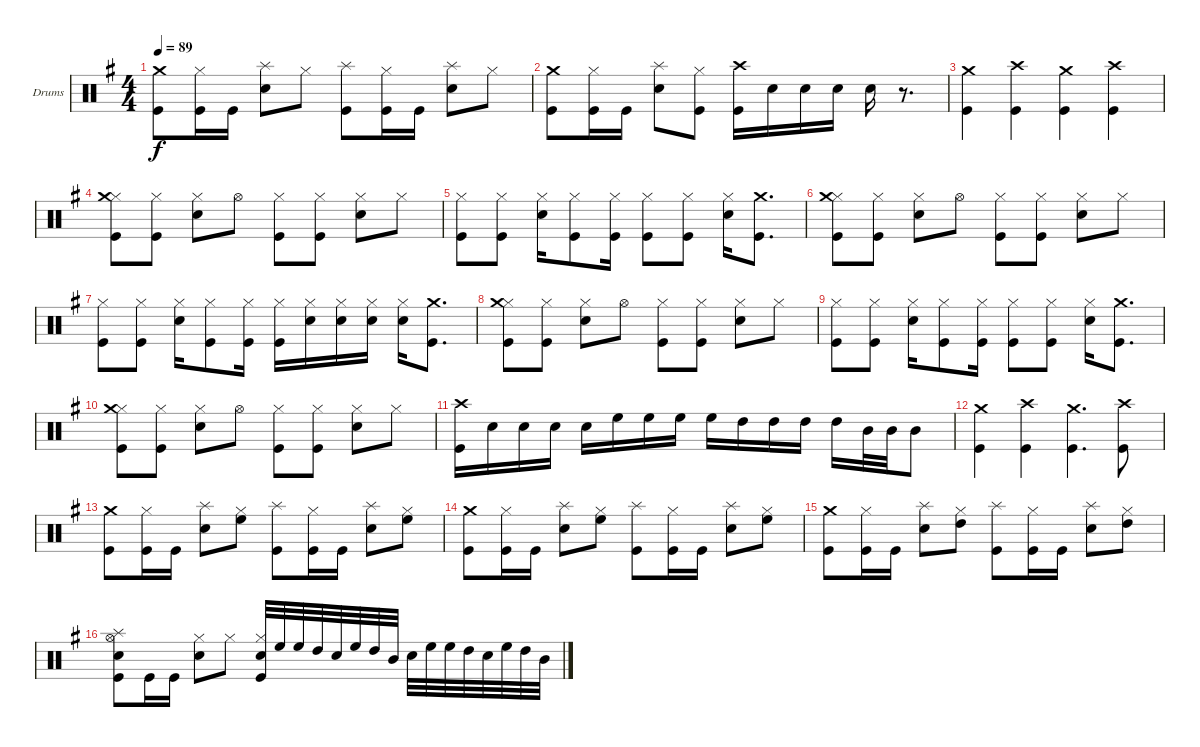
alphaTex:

\bracketExtendMode groupsimilarinstruments
\firstSystemTrackNameOrientation horizontal
\otherSystemsTrackNameOrientation horizontal
\track ("Drumkit" "Drums") {instrument percussion}
\staff {score}
\articulation defaults
\ts (4 4)
\tempo 89
\clef neutral
\scale
0.488665
\ks eminor
("Kick (hit)" "Crash medium (hit)").8{dy f} ("Kick (hit)" "Hi-Hat (closed)").16 "Kick (hit)".16 ("Snare (hit) 2" "Splash (hit)").8 "Hi-Hat (closed)".8 ("Kick (hit)" "Splash (hit)").8 ("Kick (hit)" "Hi-Hat (closed)").16 "Kick (hit)".16 ("Snare (hit) 2" "Splash (hit)").8 "Hi-Hat (closed)".8 |
\scale
0.511335 ("Kick (hit)" "Crash medium (hit)").8 ("Kick (hit)" "Hi-Hat (closed)").16 "Kick (hit)".16 ("Snare (hit) 2" "Splash (hit)").8 ("Kick (hit)" "Hi-Hat (closed)").8 ("Kick (hit)" "Crash high (hit)").16 "Snare (hit) 2".16 "Snare (hit) 2".16 "Snare (hit) 2".16 "Snare (hit) 2".16 r.8{d} |
\scale
0.40678 ("Kick (hit)" "Crash medium (hit)").4 ("Kick (hit)" "Crash high (hit)").4 ("Kick (hit)" "Crash medium (hit)").4 ("Kick (hit)" "Crash high (hit)").4 |
\scale
0.59322 ("Kick (hit)" "Hi-Hat (closed)" "Crash medium (hit)").8 ("Kick (hit)" "Hi-Hat (closed)").8 ("Snare (hit) 2" "Hi-Hat (closed)").8 "Hi-Hat (open)".8 ("Kick (hit)" "Hi-Hat (closed)").8 ("Kick (hit)" "Hi-Hat (closed)").8 ("Snare (hit) 2" "Hi-Hat (closed)").8 "Hi-Hat (closed)".8 |
\scale
0.513889 ("Kick (hit)" "Hi-Hat (closed)").8 ("Kick (hit)" "Hi-Hat (closed)").8 ("Snare (hit) 2" "Hi-Hat (closed)").16 ("Kick (hit)" "Hi-Hat (closed)").8 ("Kick (hit)" "Hi-Hat (closed)").16 ("Kick (hit)" "Hi-Hat (closed)").8 ("Kick (hit)" "Hi-Hat (closed)").8 ("Snare (hit) 2" "Hi-Hat (closed)").16 ("Kick (hit)" "Crash medium (hit)").8{d} |
\scale
0.486111 ("Kick (hit)" "Hi-Hat (closed)" "Crash medium (hit)").8 ("Kick (hit)" "Hi-Hat (closed)").8 ("Snare (hit) 2" "Hi-Hat (closed)").8 "Hi-Hat (open)".8 ("Kick (hit)" "Hi-Hat (closed)").8 ("Kick (hit)" "Hi-Hat (closed)").8 ("Snare (hit) 2" "Hi-Hat (closed)").8 "Hi-Hat (closed)".8 |
\scale
0.537037 ("Kick (hit)" "Hi-Hat (closed)").8 ("Kick (hit)" "Hi-Hat (closed)").8 ("Snare (hit) 2" "Hi-Hat (closed)").16 ("Kick (hit)" "Hi-Hat (closed)").8 ("Kick (hit)" "Hi-Hat (closed)").16 ("Kick (hit)" "Hi-Hat (closed)").16 ("Snare (hit) 2" "Hi-Hat (closed)").16 ("Snare (hit) 2" "Hi-Hat (closed)").16 ("Snare (hit) 2" "Hi-Hat (closed)").16 ("Snare (hit) 2" "Hi-Hat (closed)").16 ("Kick (hit)" "Crash medium (hit)").8{d} |
\scale
0.462963 ("Kick (hit)" "Hi-Hat (closed)" "Crash medium (hit)").8 ("Kick (hit)" "Hi-Hat (closed)").8 ("Snare (hit) 2" "Hi-Hat (closed)").8 "Hi-Hat (open)".8 ("Kick (hit)" "Hi-Hat (closed)").8 ("Kick (hit)" "Hi-Hat (closed)").8 ("Snare (hit) 2" "Hi-Hat (closed)").8 "Hi-Hat (closed)".8 |
\scale
0.513889 ("Kick (hit)" "Hi-Hat (closed)").8 ("Kick (hit)" "Hi-Hat (closed)").8 ("Snare (hit) 2" "Hi-Hat (closed)").16 ("Kick (hit)" "Hi-Hat (closed)").8 ("Kick (hit)" "Hi-Hat (closed)").16 ("Kick (hit)" "Hi-Hat (closed)").8 ("Kick (hit)" "Hi-Hat (closed)").8 ("Snare (hit) 2" "Hi-Hat (closed)").16 ("Kick (hit)" "Crash medium (hit)").8{d} |
\scale
0.486111 ("Kick (hit)" "Hi-Hat (closed)" "Crash medium (hit)").8 ("Kick (hit)" "Hi-Hat (closed)").8 ("Snare (hit) 2" "Hi-Hat (closed)").8 "Hi-Hat (open)".8 ("Kick (hit)" "Hi-Hat (closed)").8 ("Kick (hit)" "Hi-Hat (closed)").8 ("Snare (hit) 2" "Hi-Hat (closed)").8 "Hi-Hat (closed)".8 |
\scale
0.688482 ("Kick (hit)" "Crash high (hit)").16 "Snare (hit) 2".16 "Snare (hit) 2".16 "Snare (hit) 2".16 "Snare (hit) 2".16 "High Floor Tom (hit)".16 "High Floor Tom (hit)".16 "High Floor Tom (hit)".16 "High Floor Tom (hit)".16 "High Tom (hit)".16 "High Tom (hit)".16 "High Tom (hit)".16 "High Tom (hit)".16 "Mid Tom (hit)".32 "Mid Tom (hit)".32 "Mid Tom (hit)".8 |
\scale
0.311518 ("Kick (hit)" "Crash medium (hit)").4 ("Kick (hit)" "Crash high (hit)").4 ("Kick (hit)" "Crash medium (hit)").4{d} ("Kick (hit)" "Crash high (hit)").8 |
\scale
0.5 ("Kick (hit)" "Crash medium (hit)").8 ("Kick (hit)" "Hi-Hat (closed)").16 "Kick (hit)".16 ("Snare (hit) 2" "Splash (hit)").8 ("Hi-Hat (closed)" "High Floor Tom (hit)").8 ("Kick (hit)" "Splash (hit)").8 ("Kick (hit)" "Hi-Hat (closed)").16 "Kick (hit)".16 ("Snare (hit) 2" "Splash (hit)").8 ("Hi-Hat (closed)" "High Floor Tom (hit)").8 |
\scale
0.5 ("Kick (hit)" "Crash medium (hit)").8 ("Kick (hit)" "Hi-Hat (closed)").16 "Kick (hit)".16 ("Snare (hit) 2" "Splash (hit)").8 ("Hi-Hat (closed)" "High Floor Tom (hit)").8 ("Kick (hit)" "Splash (hit)").8 ("Kick (hit)" "Hi-Hat (closed)").16 "Kick (hit)".16 ("Snare (hit) 2" "Splash (hit)").8 ("Hi-Hat (closed)" "High Floor Tom (hit)").8 |
\scale
0.395918 ("Kick (hit)" "Crash medium (hit)").8 ("Kick (hit)" "Hi-Hat (closed)").16 "Kick (hit)".16 ("Snare (hit) 2" "Splash (hit)").8 ("Hi-Hat (closed)" "High Tom (hit)").8 ("Kick (hit)" "Splash (hit)").8 ("Kick (hit)" "Hi-Hat (closed)").16 "Kick (hit)".16 ("Snare (hit) 2" "Splash (hit)").8 ("Hi-Hat (closed)" "High Tom (hit)").8 |
\scale
0.604082 ("Kick (hit)" "Snare (hit) 2" "Hi-Hat (open)" "Splash (hit)").8 "Kick (hit)".16 "Kick (hit)".16 ("Snare (hit) 2" "Hi-Hat (closed)").8 "Hi-Hat (closed)".8 ("Kick (hit)" "Snare (hit) 2" "Hi-Hat (closed)").32 "High Floor Tom (hit)".32 "High Floor Tom (hit)".32 "High Tom (hit)".32 "Snare (hit) 2".32 "High Floor Tom (hit)".32 "High Tom (hit)".32 "Mid Tom (hit)".32 "Snare (hit) 2".32 "High Floor Tom (hit)".32 "High Floor Tom (hit)".32 "High Tom (hit)".32 "Snare (hit) 2".32 "High Floor Tom (hit)".32 "High Tom (hit)".32 "Mid Tom (hit)".32
